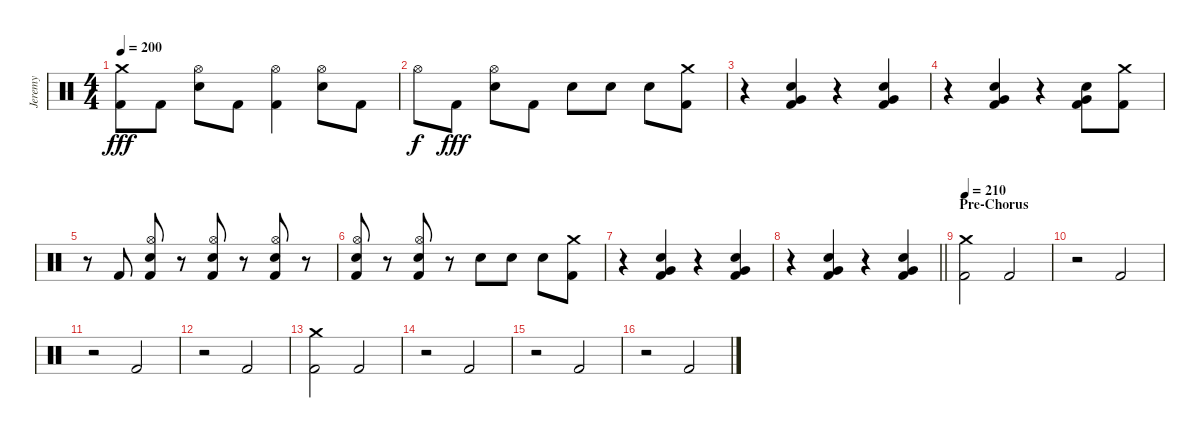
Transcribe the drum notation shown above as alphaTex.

\track ("Jeremy" "Jeremy") {instrument percussion}
\staff {score}
\articulation defaults
\ts (4 4)
\tempo 200
\clef neutral
\ks c
("Crash medium (hit)" "Kick (hit) 2").8{dy fff} "Kick (hit) 2".8 ("Hi-Hat (open)" "Electric Snare (hit)").8 "Kick (hit) 2".8 ("Hi-Hat (open)" "Kick (hit) 2").4 ("Hi-Hat (open)" "Electric Snare (hit)").8 "Kick (hit) 2".8 |
"Hi-Hat (open)".8{dy f} "Kick (hit) 2".8{dy fff} ("Hi-Hat (open)" "Electric Snare (hit)").8 "Kick (hit) 2".8 "Electric Snare (hit)".8 "Electric Snare (hit)".8 "Electric Snare (hit)".8 ("Crash medium (hit)" "Kick (hit) 2").8 |
r.4 ("Very Low Tom (hit)" "Electric Snare (hit)" "Kick (hit) 2").4 r.4 ("Very Low Tom (hit)" "Electric Snare (hit)" "Kick (hit) 2").4 |
r.4 ("Very Low Tom (hit)" "Electric Snare (hit)" "Kick (hit) 2").4 r.4 ("Very Low Tom (hit)" "Electric Snare (hit)" "Kick (hit) 2").8 ("Crash medium (hit)" "Kick (hit) 2").8 |
r.8 "Kick (hit) 2".8 ("Hi-Hat (open)" "Electric Snare (hit)" "Kick (hit) 2").8 r.8 ("Hi-Hat (open)" "Electric Snare (hit)" "Kick (hit) 2").8 r.8 ("Hi-Hat (open)" "Electric Snare (hit)" "Kick (hit) 2").8 r.8 |
("Hi-Hat (open)" "Electric Snare (hit)" "Kick (hit) 2").8 r.8 ("Hi-Hat (open)" "Electric Snare (hit)" "Kick (hit) 2").8 r.8 "Electric Snare (hit)".8 "Electric Snare (hit)".8 "Electric Snare (hit)".8 ("Crash medium (hit)" "Kick (hit) 2").8 |
r.4 ("Very Low Tom (hit)" "Electric Snare (hit)" "Kick (hit) 2").4 r.4 ("Very Low Tom (hit)" "Electric Snare (hit)" "Kick (hit) 2").4 |
\barLineRight lightlight
r.4 ("Very Low Tom (hit)" "Electric Snare (hit)" "Kick (hit) 2").4 r.4 ("Very Low Tom (hit)" "Electric Snare (hit)" "Kick (hit) 2").4 |
\section ("" "Pre-Chorus")
\tempo 210
("Crash medium (hit)" "Kick (hit) 2").2 "Kick (hit) 2".2 |
r.2 "Kick (hit) 2".2 |
r.2 "Kick (hit) 2".2 |
r.2 "Kick (hit) 2".2 |
("Crash medium (hit)" "Kick (hit) 2").2 "Kick (hit) 2".2 |
r.2 "Kick (hit) 2".2 |
r.2 "Kick (hit) 2".2 |
r.2 "Kick (hit) 2".2
